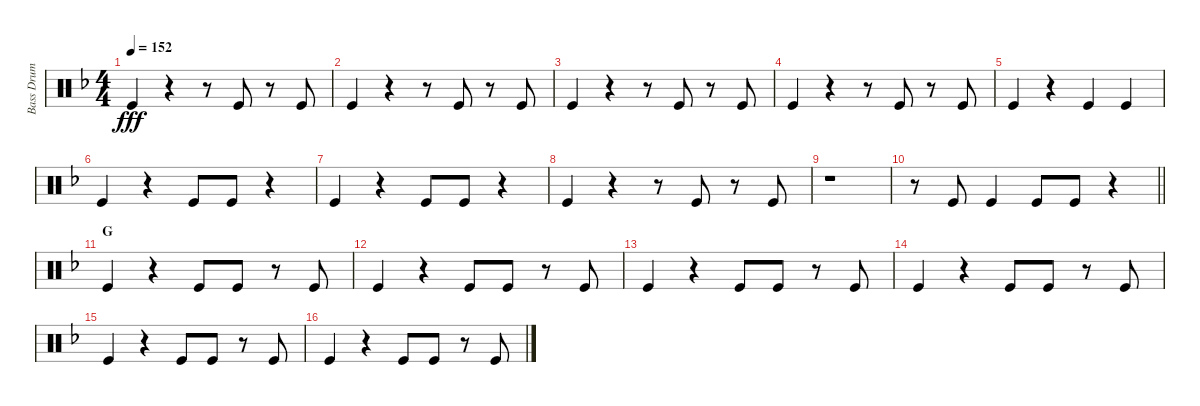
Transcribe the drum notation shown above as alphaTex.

\track ("Bass Drum" "Bass Drum") {instrument percussion}
\staff {score}
\articulation defaults
\ts (4 4)
\tempo 152
\clef neutral
\ks f "Kick (hit)".4{dy fff}
r.4 r.8 "Kick (hit)".8 r.8 "Kick (hit)".8 |
"Kick (hit)".4 r.4 r.8 "Kick (hit)".8 r.8 "Kick (hit)".8 |
"Kick (hit)".4 r.4 r.8 "Kick (hit)".8 r.8 "Kick (hit)".8 |
"Kick (hit)".4 r.4 r.8 "Kick (hit)".8 r.8 "Kick (hit)".8 |
"Kick (hit)".4 r.4 "Kick (hit)".4 "Kick (hit)".4 |
"Kick (hit)".4 r.4 "Kick (hit)".8 "Kick (hit)".8 r.4 |
"Kick (hit)".4 r.4 "Kick (hit)".8 "Kick (hit)".8 r.4 |
"Kick (hit)".4 r.4 r.8 "Kick (hit)".8 r.8 "Kick (hit)".8 |
r.1 |
\barLineRight lightlight
r.8 "Kick (hit)".8 "Kick (hit)".4 "Kick (hit)".8 "Kick (hit)".8 r.4 |
\section ("" "G")
"Kick (hit)".4 r.4 "Kick (hit)".8 "Kick (hit)".8 r.8 "Kick (hit)".8 |
"Kick (hit)".4 r.4 "Kick (hit)".8 "Kick (hit)".8 r.8 "Kick (hit)".8 |
"Kick (hit)".4 r.4 "Kick (hit)".8 "Kick (hit)".8 r.8 "Kick (hit)".8 |
"Kick (hit)".4 r.4 "Kick (hit)".8 "Kick (hit)".8 r.8 "Kick (hit)".8 |
"Kick (hit)".4 r.4 "Kick (hit)".8 "Kick (hit)".8 r.8 "Kick (hit)".8 |
"Kick (hit)".4 r.4 "Kick (hit)".8 "Kick (hit)".8 r.8 "Kick (hit)".8
